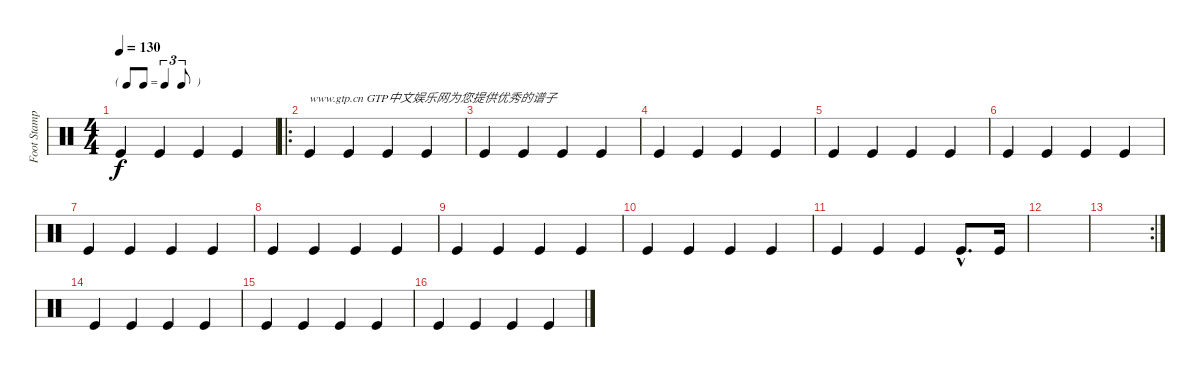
\track ("Foot Stamp" "Foot Stamp") {instrument percussion}
\staff {score}
\articulation defaults
\ts (4 4)
\tf triplet8th
\tempo 130
\clef neutral
\ks c "Kick (hit)".4{dy f} "Kick (hit)".4 "Kick (hit)".4 "Kick (hit)".4
|
\ro "Kick (hit)".4{txt "www.gtp.cn GTP中文娱乐网为您提供优秀的谱子"} "Kick (hit)".4 "Kick (hit)".4 "Kick (hit)".4
|
"Kick (hit)".4 "Kick (hit)".4 "Kick (hit)".4 "Kick (hit)".4 |
"Kick (hit)".4 "Kick (hit)".4 "Kick (hit)".4 "Kick (hit)".4 |
"Kick (hit)".4 "Kick (hit)".4 "Kick (hit)".4 "Kick (hit)".4 |
"Kick (hit)".4 "Kick (hit)".4 "Kick (hit)".4 "Kick (hit)".4 |
"Kick (hit)".4 "Kick (hit)".4 "Kick (hit)".4 "Kick (hit)".4 |
"Kick (hit)".4 "Kick (hit)".4 "Kick (hit)".4 "Kick (hit)".4 |
"Kick (hit)".4 "Kick (hit)".4 "Kick (hit)".4 "Kick (hit)".4 |
"Kick (hit)".4 "Kick (hit)".4 "Kick (hit)".4 "Kick (hit)".4 |
"Kick (hit)".4 "Kick (hit)".4 "Kick (hit)".4 "Kick (hit)"{hac}.8{d} "Kick (hit)".16 |
|
\rc 2
|
"Kick (hit)".4 "Kick (hit)".4 "Kick (hit)".4 "Kick (hit)".4 |
"Kick (hit)".4 "Kick (hit)".4 "Kick (hit)".4 "Kick (hit)".4 |
"Kick (hit)".4 "Kick (hit)".4 "Kick (hit)".4 "Kick (hit)".4
